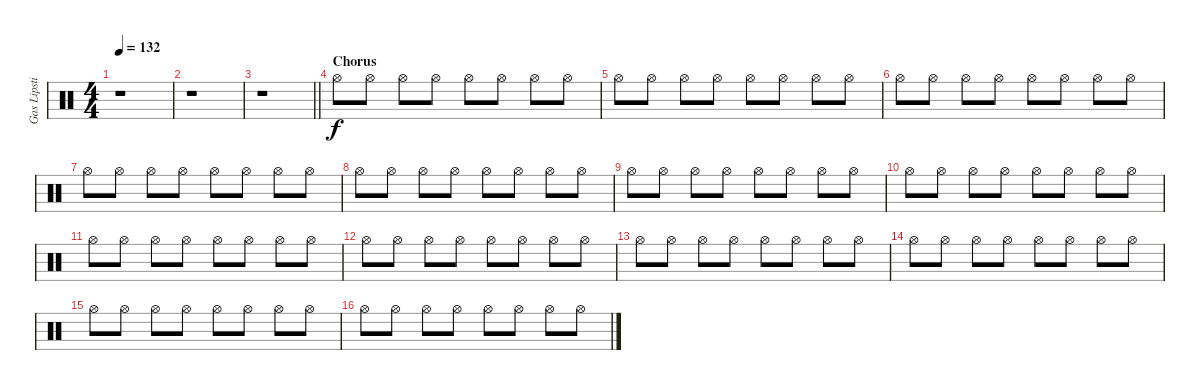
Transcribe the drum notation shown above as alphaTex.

\track ("Gas Lipstick (Drums)" "Gas Lipsti") {instrument percussion}
\staff {score}
\articulation defaults
\ts (4 4)
\tempo 132
\clef neutral
\ks c
r.1{dy f} |
r.1 |
\barLineRight lightlight
r.1 |
\section ("" "Chorus")
"Hi-Hat (open)".8 "Hi-Hat (open)".8 "Hi-Hat (open)".8 "Hi-Hat (open)".8 "Hi-Hat (open)".8 "Hi-Hat (open)".8 "Hi-Hat (open)".8 "Hi-Hat (open)".8 |
"Hi-Hat (open)".8 "Hi-Hat (open)".8 "Hi-Hat (open)".8 "Hi-Hat (open)".8 "Hi-Hat (open)".8 "Hi-Hat (open)".8 "Hi-Hat (open)".8 "Hi-Hat (open)".8 |
"Hi-Hat (open)".8 "Hi-Hat (open)".8 "Hi-Hat (open)".8 "Hi-Hat (open)".8 "Hi-Hat (open)".8 "Hi-Hat (open)".8 "Hi-Hat (open)".8 "Hi-Hat (open)".8 |
"Hi-Hat (open)".8 "Hi-Hat (open)".8 "Hi-Hat (open)".8 "Hi-Hat (open)".8 "Hi-Hat (open)".8 "Hi-Hat (open)".8 "Hi-Hat (open)".8 "Hi-Hat (open)".8 |
"Hi-Hat (open)".8 "Hi-Hat (open)".8 "Hi-Hat (open)".8 "Hi-Hat (open)".8 "Hi-Hat (open)".8 "Hi-Hat (open)".8 "Hi-Hat (open)".8 "Hi-Hat (open)".8 |
"Hi-Hat (open)".8 "Hi-Hat (open)".8 "Hi-Hat (open)".8 "Hi-Hat (open)".8 "Hi-Hat (open)".8 "Hi-Hat (open)".8 "Hi-Hat (open)".8 "Hi-Hat (open)".8 |
"Hi-Hat (open)".8 "Hi-Hat (open)".8 "Hi-Hat (open)".8 "Hi-Hat (open)".8 "Hi-Hat (open)".8 "Hi-Hat (open)".8 "Hi-Hat (open)".8 "Hi-Hat (open)".8 |
"Hi-Hat (open)".8 "Hi-Hat (open)".8 "Hi-Hat (open)".8 "Hi-Hat (open)".8 "Hi-Hat (open)".8 "Hi-Hat (open)".8 "Hi-Hat (open)".8 "Hi-Hat (open)".8 |
"Hi-Hat (open)".8 "Hi-Hat (open)".8 "Hi-Hat (open)".8 "Hi-Hat (open)".8 "Hi-Hat (open)".8 "Hi-Hat (open)".8 "Hi-Hat (open)".8 "Hi-Hat (open)".8 |
"Hi-Hat (open)".8 "Hi-Hat (open)".8 "Hi-Hat (open)".8 "Hi-Hat (open)".8 "Hi-Hat (open)".8 "Hi-Hat (open)".8 "Hi-Hat (open)".8 "Hi-Hat (open)".8 |
"Hi-Hat (open)".8 "Hi-Hat (open)".8 "Hi-Hat (open)".8 "Hi-Hat (open)".8 "Hi-Hat (open)".8 "Hi-Hat (open)".8 "Hi-Hat (open)".8 "Hi-Hat (open)".8 |
"Hi-Hat (open)".8 "Hi-Hat (open)".8 "Hi-Hat (open)".8 "Hi-Hat (open)".8 "Hi-Hat (open)".8 "Hi-Hat (open)".8 "Hi-Hat (open)".8 "Hi-Hat (open)".8 |
"Hi-Hat (open)".8 "Hi-Hat (open)".8 "Hi-Hat (open)".8 "Hi-Hat (open)".8 "Hi-Hat (open)".8 "Hi-Hat (open)".8 "Hi-Hat (open)".8 "Hi-Hat (open)".8
